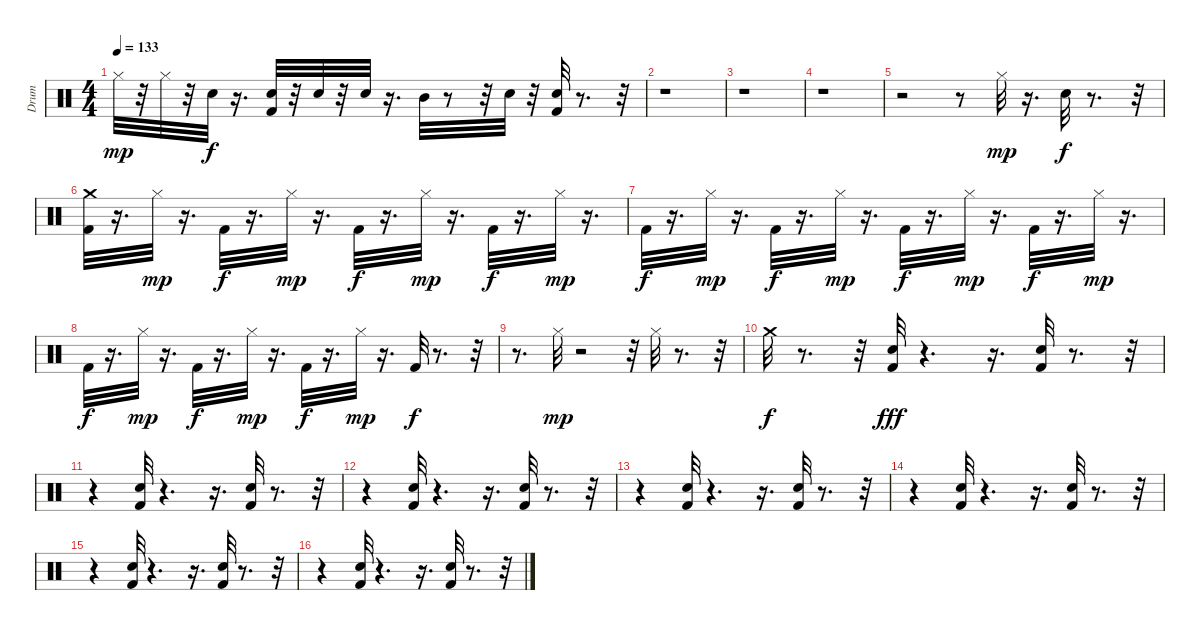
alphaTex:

\track ("Drum" "Drum") {instrument percussion}
\staff {score}
\articulation defaults
\ts (4 4)
\tempo 133
\clef neutral
\ks c "Hi-Hat (closed)".32{dy mp}
r.32 "Hi-Hat (closed)".32 r.32 "Electric Snare (hit)".32{dy f} r.16{d} ("Electric Snare (hit)" "Kick (hit) 2").32 r.32 "Electric Snare (hit)".32 r.32 "Electric Snare (hit)".32 r.16{d} "Mid Tom (hit)".32 r.8 r.32 "Electric Snare (hit)".32 r.32 ("Electric Snare (hit)" "Kick (hit) 2").32 r.8{d} r.32 |
r.1 |
r.1 |
r.1 |
r.2 r.8 "Hi-Hat (closed)".32{dy mp} r.16{d} "Electric Snare (hit)".32{dy f} r.8{d} r.32 |
("Crash medium (hit)" "Kick (hit) 2").32 r.16{d} "Hi-Hat (closed)".32{dy mp} r.16{d} "Kick (hit) 2".32{dy f} r.16{d} "Hi-Hat (closed)".32{dy mp} r.16{d} "Kick (hit) 2".32{dy f} r.16{d} "Hi-Hat (closed)".32{dy mp} r.16{d} "Kick (hit) 2".32{dy f} r.16{d} "Hi-Hat (closed)".32{dy mp} r.16{d} |
"Kick (hit) 2".32{dy f} r.16{d} "Hi-Hat (closed)".32{dy mp} r.16{d} "Kick (hit) 2".32{dy f} r.16{d} "Hi-Hat (closed)".32{dy mp} r.16{d} "Kick (hit) 2".32{dy f} r.16{d} "Hi-Hat (closed)".32{dy mp} r.16{d} "Kick (hit) 2".32{dy f} r.16{d} "Hi-Hat (closed)".32{dy mp} r.16{d} |
"Kick (hit) 2".32{dy f} r.16{d} "Hi-Hat (closed)".32{dy mp} r.16{d} "Kick (hit) 2".32{dy f} r.16{d} "Hi-Hat (closed)".32{dy mp} r.16{d} "Kick (hit) 2".32{dy f} r.16{d} "Hi-Hat (closed)".32{dy mp} r.16{d} "Kick (hit) 2".32{dy f} r.8{d} r.32 |
r.8{d} "Hi-Hat (closed)".32{dy mp} r.2 r.32 "Hi-Hat (closed)".32 r.8{d} r.32 |
"Crash medium (hit)".32{dy f} r.8{d} r.32 ("Electric Snare (hit)" "Kick (hit) 2").32{dy fff} r.4{d} r.16{d} ("Electric Snare (hit)" "Kick (hit) 2").32 r.8{d} r.32 |
r.4 ("Electric Snare (hit)" "Kick (hit) 2").32 r.4{d} r.16{d} ("Electric Snare (hit)" "Kick (hit) 2").32 r.8{d} r.32 |
r.4 ("Electric Snare (hit)" "Kick (hit) 2").32 r.4{d} r.16{d} ("Electric Snare (hit)" "Kick (hit) 2").32 r.8{d} r.32 |
r.4 ("Electric Snare (hit)" "Kick (hit) 2").32 r.4{d} r.16{d} ("Electric Snare (hit)" "Kick (hit) 2").32 r.8{d} r.32 |
r.4 ("Electric Snare (hit)" "Kick (hit) 2").32 r.4{d} r.16{d} ("Electric Snare (hit)" "Kick (hit) 2").32 r.8{d} r.32 |
r.4 ("Electric Snare (hit)" "Kick (hit) 2").32 r.4{d} r.16{d} ("Electric Snare (hit)" "Kick (hit) 2").32 r.8{d} r.32 |
r.4 ("Electric Snare (hit)" "Kick (hit) 2").32 r.4{d} r.16{d} ("Electric Snare (hit)" "Kick (hit) 2").32 r.8{d} r.32
